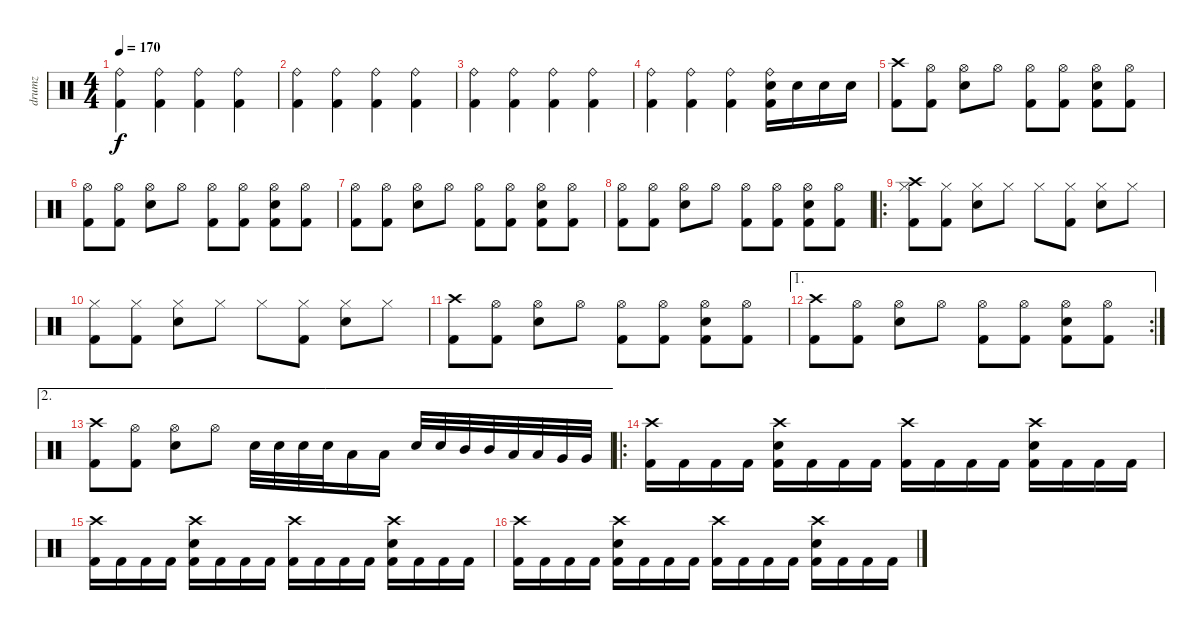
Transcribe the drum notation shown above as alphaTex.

\track ("drumz" "drumz") {instrument percussion}
\staff {score}
\articulation defaults
\ts (4 4)
\tempo 170
\clef neutral
\ks c
("Ride (bell)" "Kick (hit) 2").4{dy f} ("Ride (bell)" "Kick (hit) 2").4 ("Ride (bell)" "Kick (hit) 2").4 ("Ride (bell)" "Kick (hit) 2").4 |
("Ride (bell)" "Kick (hit) 2").4 ("Ride (bell)" "Kick (hit) 2").4 ("Ride (bell)" "Kick (hit) 2").4 ("Ride (bell)" "Kick (hit) 2").4 |
("Ride (bell)" "Kick (hit) 2").4 ("Ride (bell)" "Kick (hit) 2").4 ("Ride (bell)" "Kick (hit) 2").4 ("Ride (bell)" "Kick (hit) 2").4 |
("Ride (bell)" "Kick (hit) 2").4 ("Ride (bell)" "Kick (hit) 2").4 ("Ride (bell)" "Kick (hit) 2").4 ("Ride (bell)" "Electric Snare (hit)" "Kick (hit) 2").16 "Electric Snare (hit)".16 "Electric Snare (hit)".16 "Electric Snare (hit)".16 |
("Crash high (hit)" "Kick (hit) 2").8 ("Hi-Hat (open)" "Kick (hit) 2").8 ("Hi-Hat (open)" "Electric Snare (hit)").8 "Hi-Hat (open)".8 ("Hi-Hat (open)" "Kick (hit) 2").8 ("Hi-Hat (open)" "Kick (hit) 2").8 ("Hi-Hat (open)" "Electric Snare (hit)" "Kick (hit) 2").8 ("Hi-Hat (open)" "Kick (hit) 2").8 |
("Hi-Hat (open)" "Kick (hit) 2").8 ("Hi-Hat (open)" "Kick (hit) 2").8 ("Hi-Hat (open)" "Electric Snare (hit)").8 "Hi-Hat (open)".8 ("Hi-Hat (open)" "Kick (hit) 2").8 ("Hi-Hat (open)" "Kick (hit) 2").8 ("Hi-Hat (open)" "Electric Snare (hit)" "Kick (hit) 2").8 ("Hi-Hat (open)" "Kick (hit) 2").8 |
("Hi-Hat (open)" "Kick (hit) 2").8 ("Hi-Hat (open)" "Kick (hit) 2").8 ("Hi-Hat (open)" "Electric Snare (hit)").8 "Hi-Hat (open)".8 ("Hi-Hat (open)" "Kick (hit) 2").8 ("Hi-Hat (open)" "Kick (hit) 2").8 ("Hi-Hat (open)" "Electric Snare (hit)" "Kick (hit) 2").8 ("Hi-Hat (open)" "Kick (hit) 2").8 |
("Hi-Hat (open)" "Kick (hit) 2").8 ("Hi-Hat (open)" "Kick (hit) 2").8 ("Hi-Hat (open)" "Electric Snare (hit)").8 "Hi-Hat (open)".8 ("Hi-Hat (open)" "Kick (hit) 2").8 ("Hi-Hat (open)" "Kick (hit) 2").8 ("Hi-Hat (open)" "Electric Snare (hit)" "Kick (hit) 2").8 ("Hi-Hat (open)" "Kick (hit) 2").8 |
\ro
("Crash high (hit)" "Hi-Hat (closed)" "Kick (hit) 2").8 ("Hi-Hat (closed)" "Kick (hit) 2").8 ("Hi-Hat (closed)" "Electric Snare (hit)").8 "Hi-Hat (closed)".8 "Hi-Hat (closed)".8 ("Hi-Hat (closed)" "Kick (hit) 2").8 ("Hi-Hat (closed)" "Electric Snare (hit)").8 "Hi-Hat (closed)".8 |
("Hi-Hat (closed)" "Kick (hit) 2").8 ("Hi-Hat (closed)" "Kick (hit) 2").8 ("Hi-Hat (closed)" "Electric Snare (hit)").8 "Hi-Hat (closed)".8 "Hi-Hat (closed)".8 ("Hi-Hat (closed)" "Kick (hit) 2").8 ("Hi-Hat (closed)" "Electric Snare (hit)").8 "Hi-Hat (closed)".8 |
("Crash high (hit)" "Kick (hit) 2").8 ("Hi-Hat (open)" "Kick (hit) 2").8 ("Hi-Hat (open)" "Electric Snare (hit)").8 "Hi-Hat (open)".8 ("Hi-Hat (open)" "Kick (hit) 2").8 ("Hi-Hat (open)" "Kick (hit) 2").8 ("Hi-Hat (open)" "Electric Snare (hit)" "Kick (hit) 2").8 ("Hi-Hat (open)" "Kick (hit) 2").8 |
\ae 1
\rc 2
("Crash high (hit)" "Kick (hit) 2").8 ("Hi-Hat (open)" "Kick (hit) 2").8 ("Hi-Hat (open)" "Electric Snare (hit)").8 "Hi-Hat (open)".8 ("Hi-Hat (open)" "Kick (hit) 2").8 ("Hi-Hat (open)" "Kick (hit) 2").8 ("Hi-Hat (open)" "Electric Snare (hit)" "Kick (hit) 2").8 ("Hi-Hat (open)" "Kick (hit) 2").8 |
\ae 2
("Crash high (hit)" "Kick (hit) 2").8 ("Hi-Hat (open)" "Kick (hit) 2").8 ("Hi-Hat (open)" "Electric Snare (hit)").8 "Hi-Hat (open)".8 "Electric Snare (hit)".32 "Electric Snare (hit)".32 "Electric Snare (hit)".32 "Electric Snare (hit)".32 "Low Tom (hit)".16 "Low Tom (hit)".16 "Electric Snare (hit)".32 "Electric Snare (hit)".32 "Mid Tom (hit)".32 "Mid Tom (hit)".32 "Low Tom (hit)".32 "Low Tom (hit)".32 "Very Low Tom (hit)".32 "Very Low Tom (hit)".32 |
\ro
("Crash high (hit)" "Kick (hit) 2").16 "Kick (hit) 2".16 "Kick (hit) 2".16 "Kick (hit) 2".16 ("Crash high (hit)" "Electric Snare (hit)" "Kick (hit) 2").16 "Kick (hit) 2".16 "Kick (hit) 2".16 "Kick (hit) 2".16 ("Crash high (hit)" "Kick (hit) 2").16 "Kick (hit) 2".16 "Kick (hit) 2".16 "Kick (hit) 2".16 ("Crash high (hit)" "Electric Snare (hit)" "Kick (hit) 2").16 "Kick (hit) 2".16 "Kick (hit) 2".16 "Kick (hit) 2".16 |
("Crash high (hit)" "Kick (hit) 2").16 "Kick (hit) 2".16 "Kick (hit) 2".16 "Kick (hit) 2".16 ("Crash high (hit)" "Electric Snare (hit)" "Kick (hit) 2").16 "Kick (hit) 2".16 "Kick (hit) 2".16 "Kick (hit) 2".16 ("Crash high (hit)" "Kick (hit) 2").16 "Kick (hit) 2".16 "Kick (hit) 2".16 "Kick (hit) 2".16 ("Crash high (hit)" "Electric Snare (hit)" "Kick (hit) 2").16 "Kick (hit) 2".16 "Kick (hit) 2".16 "Kick (hit) 2".16 |
("Crash high (hit)" "Kick (hit) 2").16 "Kick (hit) 2".16 "Kick (hit) 2".16 "Kick (hit) 2".16 ("Crash high (hit)" "Electric Snare (hit)" "Kick (hit) 2").16 "Kick (hit) 2".16 "Kick (hit) 2".16 "Kick (hit) 2".16 ("Crash high (hit)" "Kick (hit) 2").16 "Kick (hit) 2".16 "Kick (hit) 2".16 "Kick (hit) 2".16 ("Crash high (hit)" "Electric Snare (hit)" "Kick (hit) 2").16 "Kick (hit) 2".16 "Kick (hit) 2".16 "Kick (hit) 2".16
